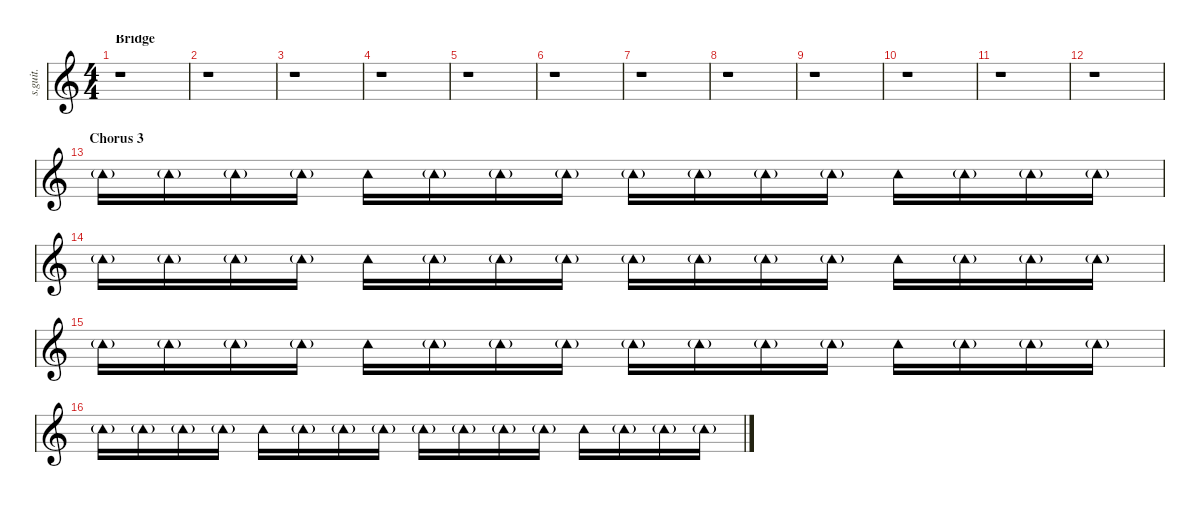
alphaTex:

\defaultSystemsLayout 4
\hideDynamics
\bracketExtendMode nobrackets
\track ("Tambourine" "s.guit.") {instrument percussion}
\staff {score}
\articulation defaults
\ts (4 4)
\section ("" "Bridge")
\tempo (136 hide)
\clef g2
\ks c
r.1{dy pp} |
r.1 |
r.1 |
r.1 |
r.1 |
r.1 |
r.1 |
r.1 |
r.1 |
r.1 |
r.1 |
r.1 |
\section ("" "Chorus 3")
"Tambourine (hit)"{g}.16 "Tambourine (hit)"{g}.16 "Tambourine (hit)"{g}.16 "Tambourine (hit)"{g}.16 "Tambourine (hit)".16{dy mp} "Tambourine (hit)"{g}.16{dy pp} "Tambourine (hit)"{g}.16 "Tambourine (hit)"{g}.16 "Tambourine (hit)"{g}.16 "Tambourine (hit)"{g}.16 "Tambourine (hit)"{g}.16 "Tambourine (hit)"{g}.16 "Tambourine (hit)".16{dy mp} "Tambourine (hit)"{g}.16{dy pp} "Tambourine (hit)"{g}.16 "Tambourine (hit)"{g}.16 |
"Tambourine (hit)"{g}.16 "Tambourine (hit)"{g}.16 "Tambourine (hit)"{g}.16 "Tambourine (hit)"{g}.16 "Tambourine (hit)".16{dy mp} "Tambourine (hit)"{g}.16{dy pp} "Tambourine (hit)"{g}.16 "Tambourine (hit)"{g}.16 "Tambourine (hit)"{g}.16 "Tambourine (hit)"{g}.16 "Tambourine (hit)"{g}.16 "Tambourine (hit)"{g}.16 "Tambourine (hit)".16{dy mp} "Tambourine (hit)"{g}.16{dy pp} "Tambourine (hit)"{g}.16 "Tambourine (hit)"{g}.16 |
"Tambourine (hit)"{g}.16 "Tambourine (hit)"{g}.16 "Tambourine (hit)"{g}.16 "Tambourine (hit)"{g}.16 "Tambourine (hit)".16{dy mp} "Tambourine (hit)"{g}.16{dy pp} "Tambourine (hit)"{g}.16 "Tambourine (hit)"{g}.16 "Tambourine (hit)"{g}.16 "Tambourine (hit)"{g}.16 "Tambourine (hit)"{g}.16 "Tambourine (hit)"{g}.16 "Tambourine (hit)".16{dy mp} "Tambourine (hit)"{g}.16{dy pp} "Tambourine (hit)"{g}.16 "Tambourine (hit)"{g}.16 |
"Tambourine (hit)"{g}.16 "Tambourine (hit)"{g}.16 "Tambourine (hit)"{g}.16 "Tambourine (hit)"{g}.16 "Tambourine (hit)".16{dy mp} "Tambourine (hit)"{g}.16{dy pp} "Tambourine (hit)"{g}.16 "Tambourine (hit)"{g}.16 "Tambourine (hit)"{g}.16 "Tambourine (hit)"{g}.16 "Tambourine (hit)"{g}.16 "Tambourine (hit)"{g}.16 "Tambourine (hit)".16{dy mp} "Tambourine (hit)"{g}.16{dy pp} "Tambourine (hit)"{g}.16 "Tambourine (hit)"{g}.16
